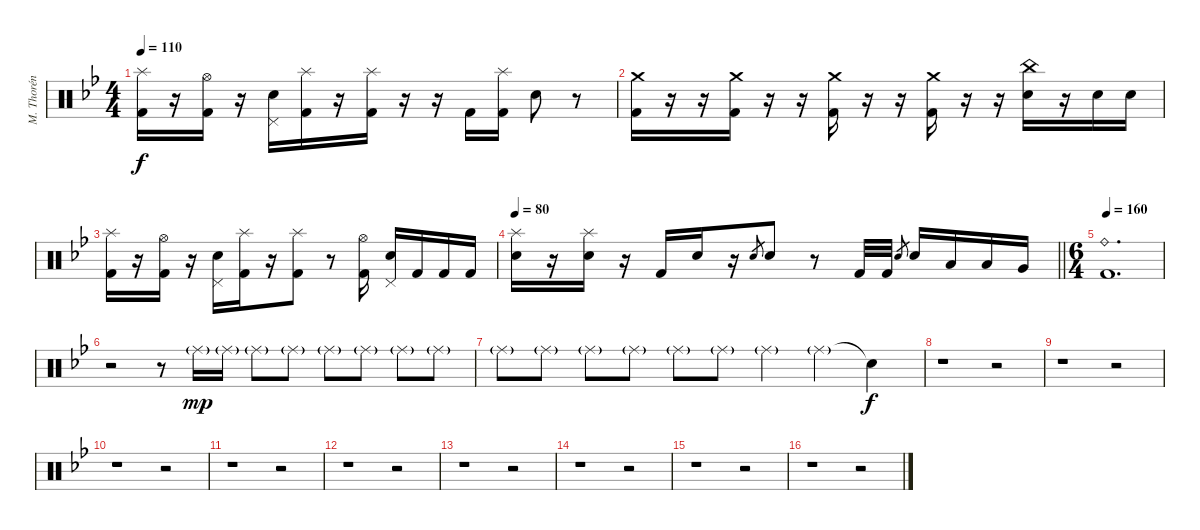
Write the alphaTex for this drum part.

\track ("M. Thorén (Drums)" "M. Thorén ") {instrument percussion}
\staff {score}
\articulation defaults
\ts (4 4)
\tempo 110
\clef neutral
\ks gminor
("Splash (hit)" "Kick (hit) 2").16{dy f} r.16 ("Hi-Hat (open)" "Kick (hit) 2").16 r.16 ("Pedal Hi-Hat (hit)" "Electric Snare (hit)").16 ("Splash (hit)" "Kick (hit) 2").16 r.16 ("Splash (hit)" "Kick (hit) 2").16 r.16 r.16 "Kick (hit) 2".16 ("Splash (hit)" "Kick (hit) 2").16 "Electric Snare (hit)".8 r.8 |
("Crash medium (hit)" "Kick (hit) 2").16 r.16 r.16{volume 0} ("Crash medium (hit)" "Kick (hit) 2").16{volume 12} r.16 r.16{volume 0} ("Crash medium (hit)" "Kick (hit) 2").16{volume 12} r.16 r.16{volume 0} ("Crash medium (hit)" "Kick (hit) 2").16{volume 12} r.16 r.16 ("China (hit)" "Electric Snare (hit)").16 r.16 "Electric Snare (hit)".16 "Electric Snare (hit)".16 |
("Splash (hit)" "Kick (hit) 2").16 r.16 ("Hi-Hat (open)" "Kick (hit) 2").16 r.16 ("Pedal Hi-Hat (hit)" "Electric Snare (hit)").16 ("Splash (hit)" "Kick (hit) 2").16 r.16 ("Splash (hit)" "Kick (hit) 2").8 r.8 ("Hi-Hat (open)" "Kick (hit) 2").16 ("Pedal Hi-Hat (hit)" "Electric Snare (hit)").16 "Kick (hit) 2".16 "Kick (hit) 2".16 "Kick (hit) 2".16 |
\tempo 80
\barLineRight lightlight
("Splash (hit)" "Electric Snare (hit)").16 r.16 ("Splash (hit)" "Electric Snare (hit)").16 r.16 "Kick (hit) 2".16 "Electric Snare (hit)".16 r.16 "Electric Snare (hit)".8{gr} "Electric Snare (hit)".8 r.8 "Kick (hit) 2".32 "Kick (hit) 2".32 "Electric Snare (hit)".8{gr} "Electric Snare (hit)".16 "Low Tom (hit)".16 "Low Tom (hit)".16 "Very Low Tom (hit)".16 |
\ts (6 4)
\tempo 160
("Ride (bell)" "Kick (hit) 2").1{d} |
r.2 r.8 "Ride (middle)"{g}.16{dy mp} "Ride (middle)"{g}.16 "Ride (middle)"{g}.8 "Ride (middle)"{g}.8 "Ride (middle)"{g}.8 "Ride (middle)"{g}.8 "Ride (middle)"{g}.8 "Ride (middle)"{g}.8 |
"Ride (middle)"{g}.8 "Ride (middle)"{g}.8 "Ride (middle)"{g}.8 "Ride (middle)"{g}.8 "Ride (middle)"{g}.8 "Ride (middle)"{g}.8 "Ride (middle)"{g}.4 "Ride (middle)"{g}.4 "Snare (hit)"{t}.4{dy f} |
r.1 r.2 |
r.1 r.2 |
r.1 r.2 |
r.1 r.2 |
r.1 r.2 |
r.1 r.2 |
r.1 r.2 |
r.1 r.2 |
r.1 r.2
